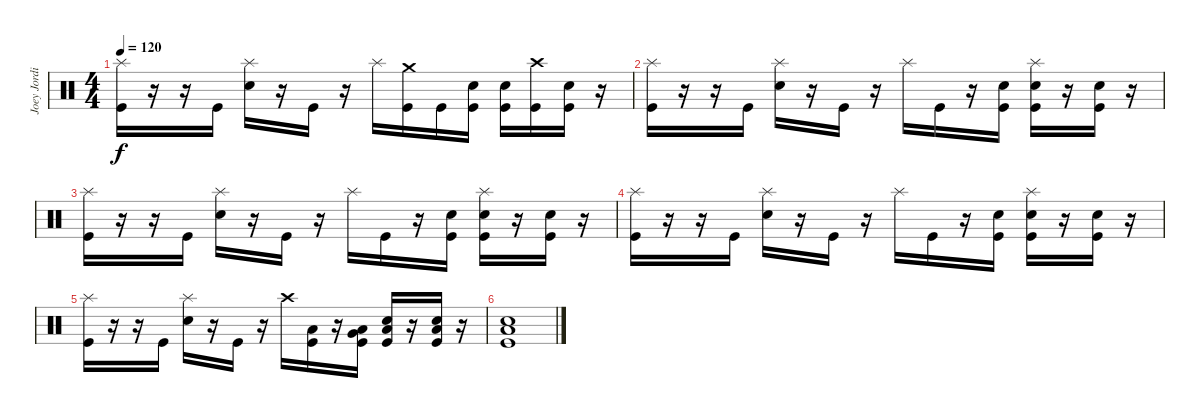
\track ("Joey Jordison" "Joey Jordi") {instrument percussion}
\staff {score}
\articulation defaults
\ts (4 4)
\tempo 120
\clef neutral
\ks c
("Splash (hit)" "Kick (hit)").16{dy f} r.16 r.16 "Kick (hit)".16 ("Splash (hit)" "Electric Snare (hit)").16 r.16 "Kick (hit)".16 r.16 "Splash (hit)".16 ("Crash medium (hit)" "Kick (hit)").16 "Kick (hit)".16 ("Electric Snare (hit)" "Kick (hit)").16 ("Electric Snare (hit)" "Kick (hit)").16 ("Crash high (hit)" "Kick (hit)").16 ("Electric Snare (hit)" "Kick (hit)").16 r.16 |
("Splash (hit)" "Kick (hit)").16 r.16 r.16 "Kick (hit)".16 ("Splash (hit)" "Electric Snare (hit)").16 r.16 "Kick (hit)".16 r.16 "Splash (hit)".16 "Kick (hit)".16 r.16 ("Electric Snare (hit)" "Kick (hit)").16 ("Splash (hit)" "Electric Snare (hit)" "Kick (hit)").16 r.16 ("Electric Snare (hit)" "Kick (hit)").16 r.16 |
("Splash (hit)" "Kick (hit)").16 r.16 r.16 "Kick (hit)".16 ("Splash (hit)" "Electric Snare (hit)").16 r.16 "Kick (hit)".16 r.16 "Splash (hit)".16 "Kick (hit)".16 r.16 ("Electric Snare (hit)" "Kick (hit)").16 ("Splash (hit)" "Electric Snare (hit)" "Kick (hit)").16 r.16 ("Electric Snare (hit)" "Kick (hit)").16 r.16 |
("Splash (hit)" "Kick (hit)").16 r.16 r.16 "Kick (hit)".16 ("Splash (hit)" "Electric Snare (hit)").16 r.16 "Kick (hit)".16 r.16 "Splash (hit)".16 "Kick (hit)".16 r.16 ("Electric Snare (hit)" "Kick (hit)").16 ("Splash (hit)" "Electric Snare (hit)" "Kick (hit)").16 r.16 ("Electric Snare (hit)" "Kick (hit)").16 r.16 |
("Splash (hit)" "Kick (hit)").16 r.16 r.16 "Kick (hit)".16 ("Splash (hit)" "Electric Snare (hit)").16 r.16 "Kick (hit)".16 r.16 "Crash high (hit)".16 ("Low Floor Tom (hit)" "Kick (hit)").16 r.16 ("Low Floor Tom (hit)" "Very Low Tom (hit)" "Kick (hit)").16 ("Low Floor Tom (hit)" "Electric Snare (hit)" "Kick (hit)").16 r.16 ("Low Floor Tom (hit)" "Electric Snare (hit)" "Kick (hit)").16 r.16 |
("Low Floor Tom (hit)" "Electric Snare (hit)" "Kick (hit)").1
